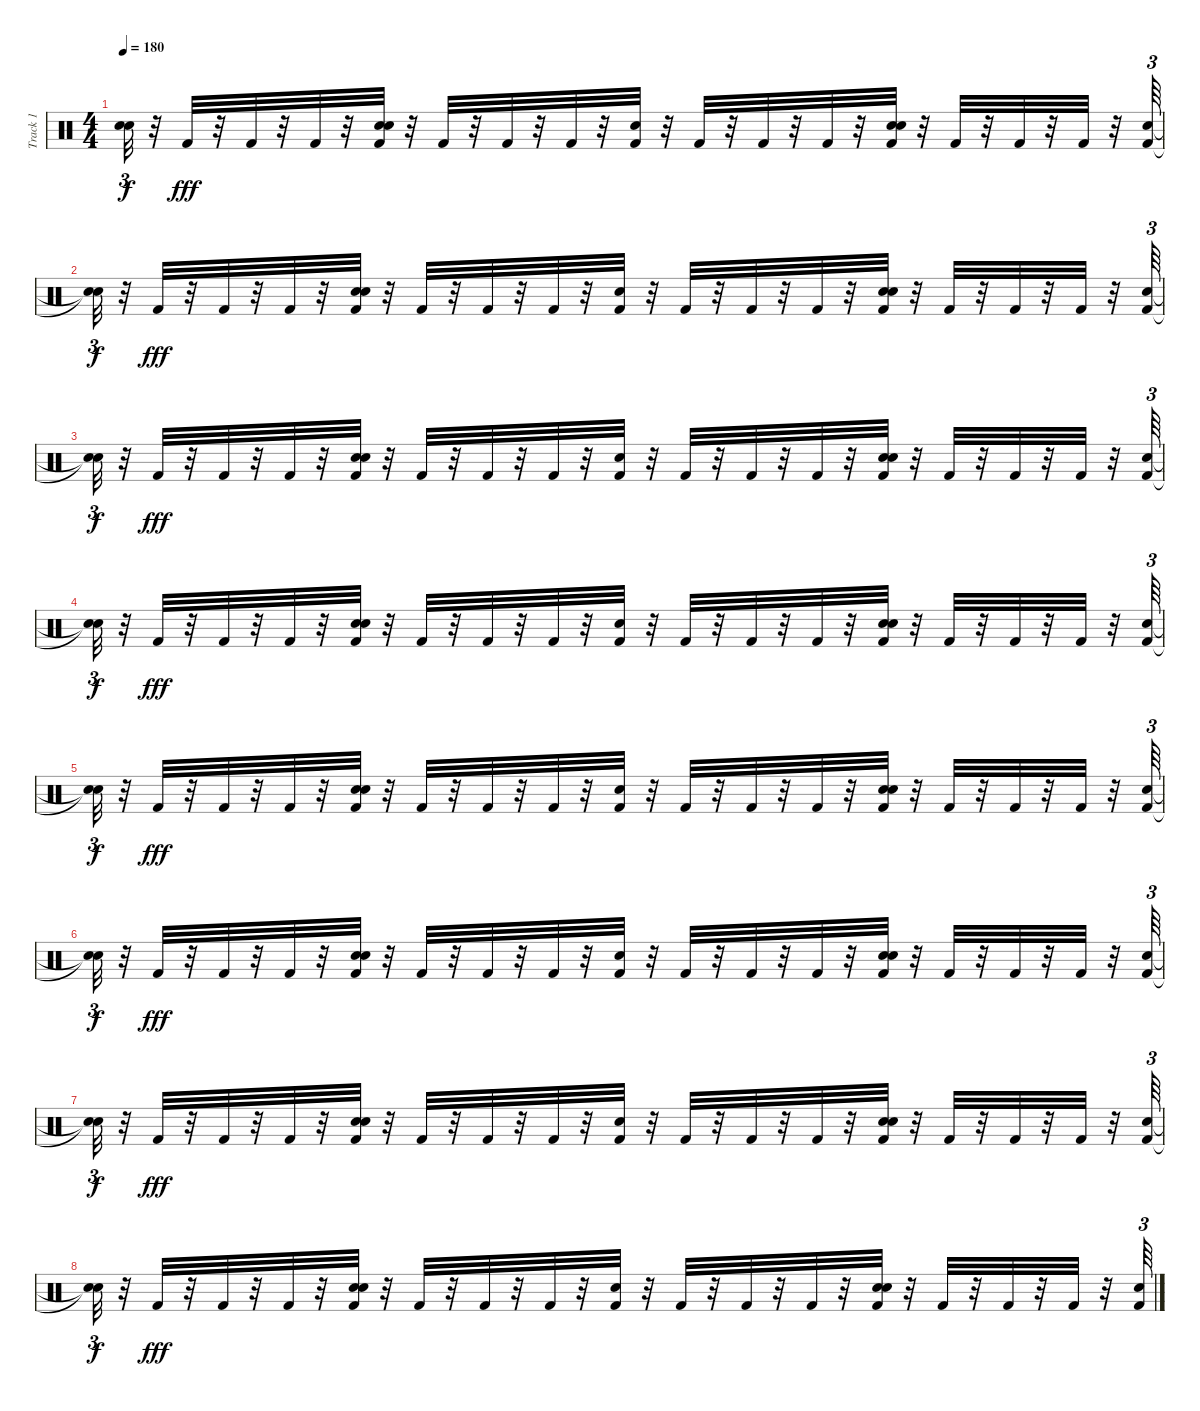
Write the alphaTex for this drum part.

\track ("Track 1" "Track 1") {mute instrument percussion}
\staff {score}
\articulation defaults
\ts (4 4)
\tempo 180
\clef neutral
\ks c
("Snare (hit)"{t} "Snare (hit)"{t}).32{tu (3 2) dy f} r.32 "Kick (hit) 2".32{dy fff} r.32 "Kick (hit) 2".32 r.32 "Kick (hit) 2".32 r.32 ("Snare (hit)" "Kick (hit) 2" "Snare (hit) 2").32 r.32 "Kick (hit) 2".32 r.32 "Kick (hit) 2".32 r.32 "Kick (hit) 2".32 r.32 ("Kick (hit) 2" "Snare (hit)").32 r.32 "Kick (hit) 2".32 r.32 "Kick (hit) 2".32 r.32 "Kick (hit) 2".32 r.32 ("Snare (hit)" "Kick (hit) 2" "Snare (hit) 2").32 r.32 "Kick (hit) 2".32 r.32 "Kick (hit) 2".32 r.32 "Kick (hit) 2".32 r.32 ("Kick (hit) 2" "Snare (hit)").64{tu (3 2)} |
("Snare (hit)"{t} "Snare (hit)"{t}).32{tu (3 2) dy f} r.32 "Kick (hit) 2".32{dy fff} r.32 "Kick (hit) 2".32 r.32 "Kick (hit) 2".32 r.32 ("Snare (hit)" "Kick (hit) 2" "Snare (hit) 2").32 r.32 "Kick (hit) 2".32 r.32 "Kick (hit) 2".32 r.32 "Kick (hit) 2".32 r.32 ("Kick (hit) 2" "Snare (hit)").32 r.32 "Kick (hit) 2".32 r.32 "Kick (hit) 2".32 r.32 "Kick (hit) 2".32 r.32 ("Snare (hit) 2" "Snare (hit)" "Kick (hit) 2").32 r.32 "Kick (hit) 2".32 r.32 "Kick (hit) 2".32 r.32 "Kick (hit) 2".32 r.32 ("Kick (hit) 2" "Snare (hit)").64{tu (3 2)} |
("Snare (hit)"{t} "Snare (hit)"{t}).32{tu (3 2) dy f} r.32 "Kick (hit) 2".32{dy fff} r.32 "Kick (hit) 2".32 r.32 "Kick (hit) 2".32 r.32 ("Snare (hit)" "Snare (hit) 2" "Kick (hit) 2").32 r.32 "Kick (hit) 2".32 r.32 "Kick (hit) 2".32 r.32 "Kick (hit) 2".32 r.32 ("Kick (hit) 2" "Snare (hit)").32 r.32 "Kick (hit) 2".32 r.32 "Kick (hit) 2".32 r.32 "Kick (hit) 2".32 r.32 ("Snare (hit) 2" "Snare (hit)" "Kick (hit) 2").32 r.32 "Kick (hit) 2".32 r.32 "Kick (hit) 2".32 r.32 "Kick (hit) 2".32 r.32 ("Kick (hit) 2" "Snare (hit)").64{tu (3 2)} |
("Snare (hit)"{t} "Snare (hit)"{t}).32{tu (3 2) dy f} r.32 "Kick (hit) 2".32{dy fff} r.32 "Kick (hit) 2".32 r.32 "Kick (hit) 2".32 r.32 ("Snare (hit)" "Kick (hit) 2" "Snare (hit) 2").32 r.32 "Kick (hit) 2".32 r.32 "Kick (hit) 2".32 r.32 "Kick (hit) 2".32 r.32 ("Kick (hit) 2" "Snare (hit)").32 r.32 "Kick (hit) 2".32 r.32 "Kick (hit) 2".32 r.32 "Kick (hit) 2".32 r.32 ("Snare (hit)" "Snare (hit) 2" "Kick (hit) 2").32 r.32 "Kick (hit) 2".32 r.32 "Kick (hit) 2".32 r.32 "Kick (hit) 2".32 r.32 ("Kick (hit) 2" "Snare (hit)").64{tu (3 2)} |
("Snare (hit)"{t} "Snare (hit)"{t}).32{tu (3 2) dy f} r.32 "Kick (hit) 2".32{dy fff} r.32 "Kick (hit) 2".32 r.32 "Kick (hit) 2".32 r.32 ("Snare (hit)" "Kick (hit) 2" "Snare (hit) 2").32 r.32 "Kick (hit) 2".32 r.32 "Kick (hit) 2".32 r.32 "Kick (hit) 2".32 r.32 ("Kick (hit) 2" "Snare (hit)").32 r.32 "Kick (hit) 2".32 r.32 "Kick (hit) 2".32 r.32 "Kick (hit) 2".32 r.32 ("Snare (hit)" "Kick (hit) 2" "Snare (hit) 2").32 r.32 "Kick (hit) 2".32 r.32 "Kick (hit) 2".32 r.32 "Kick (hit) 2".32 r.32 ("Kick (hit) 2" "Snare (hit)").64{tu (3 2)} |
("Snare (hit)"{t} "Snare (hit)"{t}).32{tu (3 2) dy f} r.32 "Kick (hit) 2".32{dy fff} r.32 "Kick (hit) 2".32 r.32 "Kick (hit) 2".32 r.32 ("Snare (hit)" "Kick (hit) 2" "Snare (hit) 2").32 r.32 "Kick (hit) 2".32 r.32 "Kick (hit) 2".32 r.32 "Kick (hit) 2".32 r.32 ("Kick (hit) 2" "Snare (hit)").32 r.32 "Kick (hit) 2".32 r.32 "Kick (hit) 2".32 r.32 "Kick (hit) 2".32 r.32 ("Snare (hit) 2" "Snare (hit)" "Kick (hit) 2").32 r.32 "Kick (hit) 2".32 r.32 "Kick (hit) 2".32 r.32 "Kick (hit) 2".32 r.32 ("Kick (hit) 2" "Snare (hit)").64{tu (3 2)} |
("Snare (hit)"{t} "Snare (hit)"{t}).32{tu (3 2) dy f} r.32 "Kick (hit) 2".32{dy fff} r.32 "Kick (hit) 2".32 r.32 "Kick (hit) 2".32 r.32 ("Snare (hit)" "Snare (hit) 2" "Kick (hit) 2").32 r.32 "Kick (hit) 2".32 r.32 "Kick (hit) 2".32 r.32 "Kick (hit) 2".32 r.32 ("Kick (hit) 2" "Snare (hit)").32 r.32 "Kick (hit) 2".32 r.32 "Kick (hit) 2".32 r.32 "Kick (hit) 2".32 r.32 ("Snare (hit) 2" "Snare (hit)" "Kick (hit) 2").32 r.32 "Kick (hit) 2".32 r.32 "Kick (hit) 2".32 r.32 "Kick (hit) 2".32 r.32 ("Kick (hit) 2" "Snare (hit)").64{tu (3 2)} |
("Snare (hit)"{t} "Snare (hit)"{t}).32{tu (3 2) dy f} r.32 "Kick (hit) 2".32{dy fff} r.32 "Kick (hit) 2".32 r.32 "Kick (hit) 2".32 r.32 ("Snare (hit)" "Kick (hit) 2" "Snare (hit) 2").32 r.32 "Kick (hit) 2".32 r.32 "Kick (hit) 2".32 r.32 "Kick (hit) 2".32 r.32 ("Kick (hit) 2" "Snare (hit)").32 r.32 "Kick (hit) 2".32 r.32 "Kick (hit) 2".32 r.32 "Kick (hit) 2".32 r.32 ("Snare (hit)" "Snare (hit) 2" "Kick (hit) 2").32 r.32 "Kick (hit) 2".32 r.32 "Kick (hit) 2".32 r.32 "Kick (hit) 2".32 r.32 ("Kick (hit) 2" "Snare (hit)").64{tu (3 2)}
